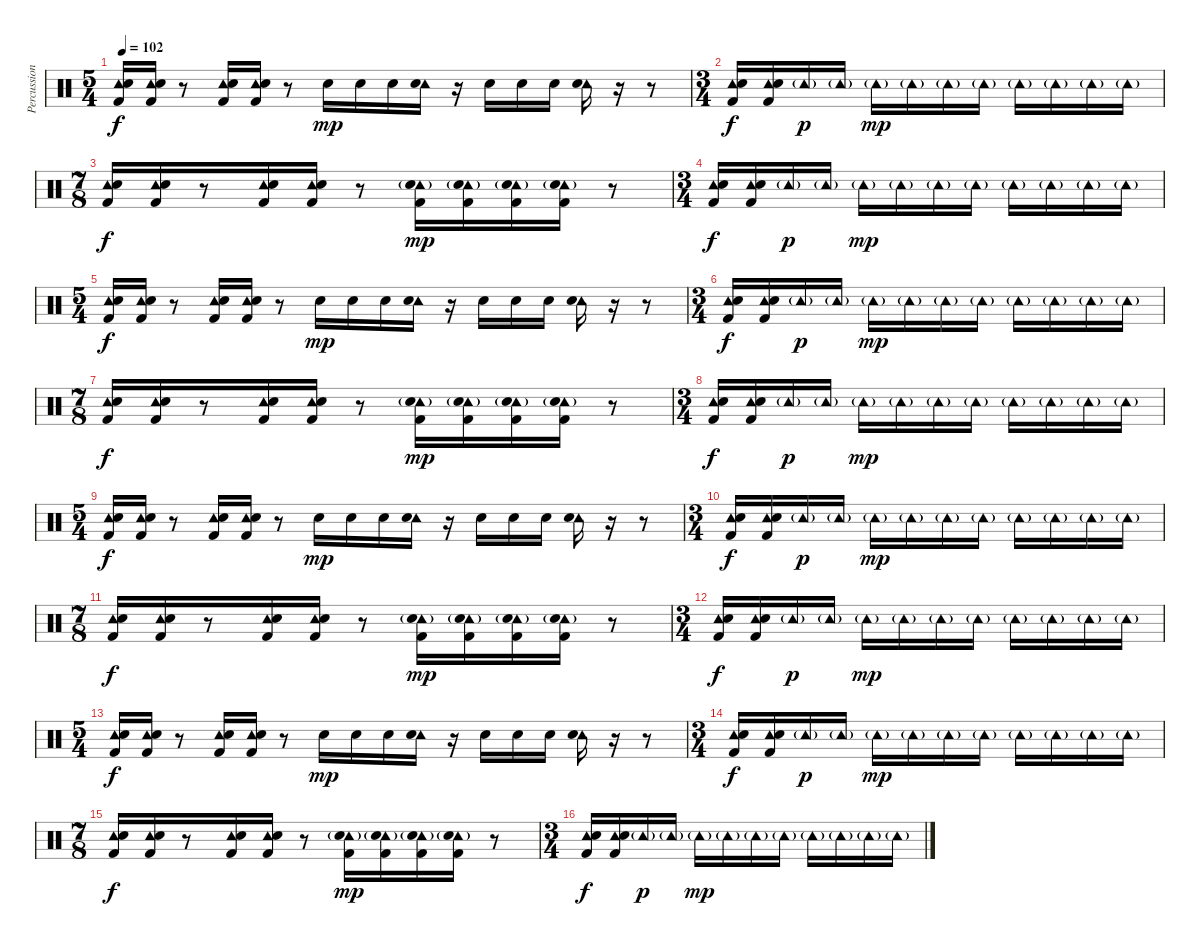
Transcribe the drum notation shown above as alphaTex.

\track ("Percussion" "Percussion") {instrument percussion}
\staff {score}
\articulation defaults
\ts (5 4)
\tempo 102
\clef neutral
\ks c
("Tambourine (hit)" "Snare (hit) 2" "Kick (hit) 2").16{dy f} ("Tambourine (hit)" "Snare (hit) 2" "Kick (hit) 2").16 r.8 ("Tambourine (hit)" "Snare (hit) 2" "Kick (hit) 2").16 ("Tambourine (hit)" "Snare (hit) 2" "Kick (hit) 2").16 r.8 "Electric Snare (hit)".16{dy mp} "Electric Snare (hit)".16 "Electric Snare (hit)".16 ("Tambourine (hit)" "Electric Snare (hit)").16 r.16 "Electric Snare (hit)".16 "Electric Snare (hit)".16 "Electric Snare (hit)".16 ("Tambourine (hit)" "Electric Snare (hit)").16 r.16 r.8 |
\ts (3 4)
("Tambourine (hit)" "Snare (hit) 2" "Kick (hit) 2").16{dy f} ("Tambourine (hit)" "Snare (hit) 2" "Kick (hit) 2").16 "Tambourine (hit)"{g}.16{dy p} "Tambourine (hit)"{g}.16 "Tambourine (hit)"{g}.16{dy mp} "Tambourine (hit)"{g}.16 "Tambourine (hit)"{g}.16 "Tambourine (hit)"{g}.16 "Tambourine (hit)"{g}.16 "Tambourine (hit)"{g}.16 "Tambourine (hit)"{g}.16 "Tambourine (hit)"{g}.16 |
\ts (7 8)
("Tambourine (hit)" "Snare (hit) 2" "Kick (hit) 2").16{dy f} ("Tambourine (hit)" "Snare (hit) 2" "Kick (hit) 2").16 r.8 ("Tambourine (hit)" "Snare (hit) 2" "Kick (hit) 2").16 ("Tambourine (hit)" "Snare (hit) 2" "Kick (hit) 2").16 r.8 ("Tambourine (hit)"{g} "Electric Snare (hit)"{g} "Kick (hit) 2").16{dy mp} ("Tambourine (hit)"{g} "Electric Snare (hit)"{g} "Kick (hit) 2").16 ("Tambourine (hit)"{g} "Electric Snare (hit)"{g} "Kick (hit) 2").16 ("Tambourine (hit)"{g} "Electric Snare (hit)"{g} "Kick (hit) 2").16 r.8 |
\ts (3 4)
("Tambourine (hit)" "Snare (hit) 2" "Kick (hit) 2").16{dy f} ("Tambourine (hit)" "Snare (hit) 2" "Kick (hit) 2").16 "Tambourine (hit)"{g}.16{dy p} "Tambourine (hit)"{g}.16 "Tambourine (hit)"{g}.16{dy mp} "Tambourine (hit)"{g}.16 "Tambourine (hit)"{g}.16 "Tambourine (hit)"{g}.16 "Tambourine (hit)"{g}.16 "Tambourine (hit)"{g}.16 "Tambourine (hit)"{g}.16 "Tambourine (hit)"{g}.16 |
\ts (5 4)
("Tambourine (hit)" "Snare (hit) 2" "Kick (hit) 2").16{dy f} ("Tambourine (hit)" "Snare (hit) 2" "Kick (hit) 2").16 r.8 ("Tambourine (hit)" "Snare (hit) 2" "Kick (hit) 2").16 ("Tambourine (hit)" "Snare (hit) 2" "Kick (hit) 2").16 r.8 "Electric Snare (hit)".16{dy mp} "Electric Snare (hit)".16 "Electric Snare (hit)".16 ("Tambourine (hit)" "Electric Snare (hit)").16 r.16 "Electric Snare (hit)".16 "Electric Snare (hit)".16 "Electric Snare (hit)".16 ("Tambourine (hit)" "Electric Snare (hit)").16 r.16 r.8 |
\ts (3 4)
("Tambourine (hit)" "Snare (hit) 2" "Kick (hit) 2").16{dy f} ("Tambourine (hit)" "Snare (hit) 2" "Kick (hit) 2").16 "Tambourine (hit)"{g}.16{dy p} "Tambourine (hit)"{g}.16 "Tambourine (hit)"{g}.16{dy mp} "Tambourine (hit)"{g}.16 "Tambourine (hit)"{g}.16 "Tambourine (hit)"{g}.16 "Tambourine (hit)"{g}.16 "Tambourine (hit)"{g}.16 "Tambourine (hit)"{g}.16 "Tambourine (hit)"{g}.16 |
\ts (7 8)
("Tambourine (hit)" "Snare (hit) 2" "Kick (hit) 2").16{dy f} ("Tambourine (hit)" "Snare (hit) 2" "Kick (hit) 2").16 r.8 ("Tambourine (hit)" "Snare (hit) 2" "Kick (hit) 2").16 ("Tambourine (hit)" "Snare (hit) 2" "Kick (hit) 2").16 r.8 ("Tambourine (hit)"{g} "Electric Snare (hit)"{g} "Kick (hit) 2").16{dy mp} ("Tambourine (hit)"{g} "Electric Snare (hit)"{g} "Kick (hit) 2").16 ("Tambourine (hit)"{g} "Electric Snare (hit)"{g} "Kick (hit) 2").16 ("Tambourine (hit)"{g} "Electric Snare (hit)"{g} "Kick (hit) 2").16 r.8 |
\ts (3 4)
("Tambourine (hit)" "Snare (hit) 2" "Kick (hit) 2").16{dy f} ("Tambourine (hit)" "Snare (hit) 2" "Kick (hit) 2").16 "Tambourine (hit)"{g}.16{dy p} "Tambourine (hit)"{g}.16 "Tambourine (hit)"{g}.16{dy mp} "Tambourine (hit)"{g}.16 "Tambourine (hit)"{g}.16 "Tambourine (hit)"{g}.16 "Tambourine (hit)"{g}.16 "Tambourine (hit)"{g}.16 "Tambourine (hit)"{g}.16 "Tambourine (hit)"{g}.16 |
\ts (5 4)
("Tambourine (hit)" "Snare (hit) 2" "Kick (hit) 2").16{dy f} ("Tambourine (hit)" "Snare (hit) 2" "Kick (hit) 2").16 r.8 ("Tambourine (hit)" "Snare (hit) 2" "Kick (hit) 2").16 ("Tambourine (hit)" "Snare (hit) 2" "Kick (hit) 2").16 r.8 "Electric Snare (hit)".16{dy mp} "Electric Snare (hit)".16 "Electric Snare (hit)".16 ("Tambourine (hit)" "Electric Snare (hit)").16 r.16 "Electric Snare (hit)".16 "Electric Snare (hit)".16 "Electric Snare (hit)".16 ("Tambourine (hit)" "Electric Snare (hit)").16 r.16 r.8 |
\ts (3 4)
("Tambourine (hit)" "Snare (hit) 2" "Kick (hit) 2").16{dy f} ("Tambourine (hit)" "Snare (hit) 2" "Kick (hit) 2").16 "Tambourine (hit)"{g}.16{dy p} "Tambourine (hit)"{g}.16 "Tambourine (hit)"{g}.16{dy mp} "Tambourine (hit)"{g}.16 "Tambourine (hit)"{g}.16 "Tambourine (hit)"{g}.16 "Tambourine (hit)"{g}.16 "Tambourine (hit)"{g}.16 "Tambourine (hit)"{g}.16 "Tambourine (hit)"{g}.16 |
\ts (7 8)
("Tambourine (hit)" "Snare (hit) 2" "Kick (hit) 2").16{dy f} ("Tambourine (hit)" "Snare (hit) 2" "Kick (hit) 2").16 r.8 ("Tambourine (hit)" "Snare (hit) 2" "Kick (hit) 2").16 ("Tambourine (hit)" "Snare (hit) 2" "Kick (hit) 2").16 r.8 ("Tambourine (hit)"{g} "Electric Snare (hit)"{g} "Kick (hit) 2").16{dy mp} ("Tambourine (hit)"{g} "Electric Snare (hit)"{g} "Kick (hit) 2").16 ("Tambourine (hit)"{g} "Electric Snare (hit)"{g} "Kick (hit) 2").16 ("Tambourine (hit)"{g} "Electric Snare (hit)"{g} "Kick (hit) 2").16 r.8 |
\ts (3 4)
("Tambourine (hit)" "Snare (hit) 2" "Kick (hit) 2").16{dy f} ("Tambourine (hit)" "Snare (hit) 2" "Kick (hit) 2").16 "Tambourine (hit)"{g}.16{dy p} "Tambourine (hit)"{g}.16 "Tambourine (hit)"{g}.16{dy mp} "Tambourine (hit)"{g}.16 "Tambourine (hit)"{g}.16 "Tambourine (hit)"{g}.16 "Tambourine (hit)"{g}.16 "Tambourine (hit)"{g}.16 "Tambourine (hit)"{g}.16 "Tambourine (hit)"{g}.16 |
\ts (5 4)
("Tambourine (hit)" "Snare (hit) 2" "Kick (hit) 2").16{dy f} ("Tambourine (hit)" "Snare (hit) 2" "Kick (hit) 2").16 r.8 ("Tambourine (hit)" "Snare (hit) 2" "Kick (hit) 2").16 ("Tambourine (hit)" "Snare (hit) 2" "Kick (hit) 2").16 r.8 "Electric Snare (hit)".16{dy mp} "Electric Snare (hit)".16 "Electric Snare (hit)".16 ("Tambourine (hit)" "Electric Snare (hit)").16 r.16 "Electric Snare (hit)".16 "Electric Snare (hit)".16 "Electric Snare (hit)".16 ("Tambourine (hit)" "Electric Snare (hit)").16 r.16 r.8 |
\ts (3 4)
("Tambourine (hit)" "Snare (hit) 2" "Kick (hit) 2").16{dy f} ("Tambourine (hit)" "Snare (hit) 2" "Kick (hit) 2").16 "Tambourine (hit)"{g}.16{dy p} "Tambourine (hit)"{g}.16 "Tambourine (hit)"{g}.16{dy mp} "Tambourine (hit)"{g}.16 "Tambourine (hit)"{g}.16 "Tambourine (hit)"{g}.16 "Tambourine (hit)"{g}.16 "Tambourine (hit)"{g}.16 "Tambourine (hit)"{g}.16 "Tambourine (hit)"{g}.16 |
\ts (7 8)
("Tambourine (hit)" "Snare (hit) 2" "Kick (hit) 2").16{dy f} ("Tambourine (hit)" "Snare (hit) 2" "Kick (hit) 2").16 r.8 ("Tambourine (hit)" "Snare (hit) 2" "Kick (hit) 2").16 ("Tambourine (hit)" "Snare (hit) 2" "Kick (hit) 2").16 r.8 ("Tambourine (hit)"{g} "Electric Snare (hit)"{g} "Kick (hit) 2").16{dy mp} ("Tambourine (hit)"{g} "Electric Snare (hit)"{g} "Kick (hit) 2").16 ("Tambourine (hit)"{g} "Electric Snare (hit)"{g} "Kick (hit) 2").16 ("Tambourine (hit)"{g} "Electric Snare (hit)"{g} "Kick (hit) 2").16 r.8 |
\ts (3 4)
("Tambourine (hit)" "Snare (hit) 2" "Kick (hit) 2").16{dy f} ("Tambourine (hit)" "Snare (hit) 2" "Kick (hit) 2").16 "Tambourine (hit)"{g}.16{dy p} "Tambourine (hit)"{g}.16 "Tambourine (hit)"{g}.16{dy mp} "Tambourine (hit)"{g}.16 "Tambourine (hit)"{g}.16 "Tambourine (hit)"{g}.16 "Tambourine (hit)"{g}.16 "Tambourine (hit)"{g}.16 "Tambourine (hit)"{g}.16 "Tambourine (hit)"{g}.16
